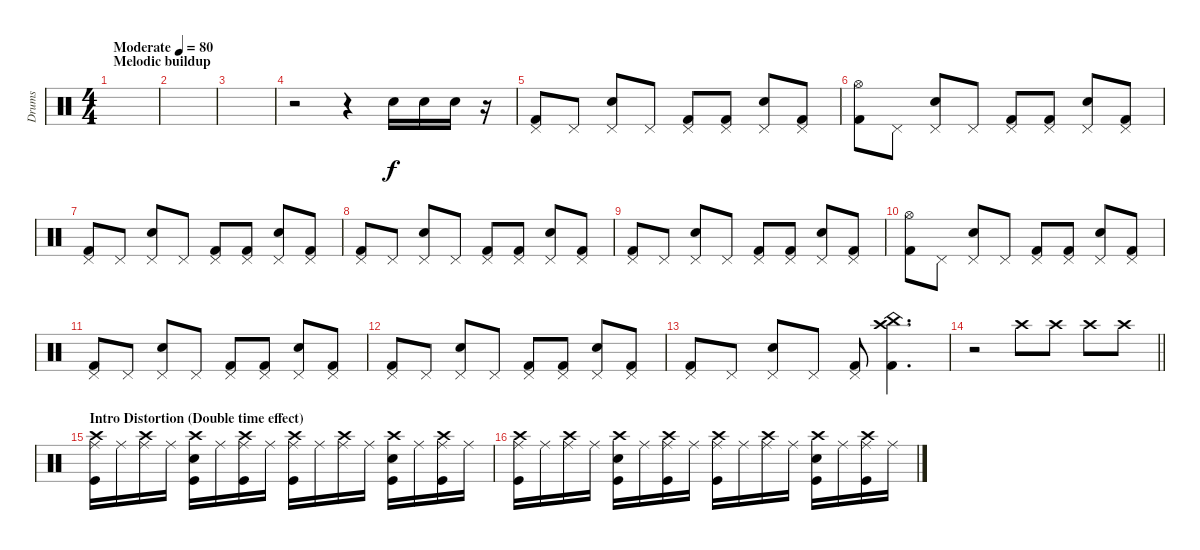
\track ("Drums" "Drums") {instrument percussion}
\staff {score}
\articulation defaults
\ts (4 4)
\section ("" "Melodic buildup")
\tempo (80 "Moderate")
\clef neutral
\ks c
|
|
|
r.2 r.4 "Snare (hit) 2".16 "Snare (hit) 2".16 "Snare (hit) 2".16 r.16 |
("Pedal Hi-Hat (hit)" "Kick (hit) 2").8 "Pedal Hi-Hat (hit)".8 ("Pedal Hi-Hat (hit)" "Electric Snare (hit)").8 "Pedal Hi-Hat (hit)".8 ("Pedal Hi-Hat (hit)" "Kick (hit) 2").8 ("Pedal Hi-Hat (hit)" "Kick (hit) 2").8 ("Pedal Hi-Hat (hit)" "Electric Snare (hit)").8 ("Pedal Hi-Hat (hit)" "Kick (hit) 2").8 |
("Hi-Hat (open)" "Kick (hit) 2").8 "Pedal Hi-Hat (hit)".8 ("Pedal Hi-Hat (hit)" "Electric Snare (hit)").8 "Pedal Hi-Hat (hit)".8 ("Pedal Hi-Hat (hit)" "Kick (hit) 2").8 ("Pedal Hi-Hat (hit)" "Kick (hit) 2").8 ("Pedal Hi-Hat (hit)" "Electric Snare (hit)").8 ("Pedal Hi-Hat (hit)" "Kick (hit) 2").8 |
("Pedal Hi-Hat (hit)" "Kick (hit) 2").8 "Pedal Hi-Hat (hit)".8 ("Pedal Hi-Hat (hit)" "Electric Snare (hit)").8 "Pedal Hi-Hat (hit)".8 ("Pedal Hi-Hat (hit)" "Kick (hit) 2").8 ("Pedal Hi-Hat (hit)" "Kick (hit) 2").8 ("Pedal Hi-Hat (hit)" "Electric Snare (hit)").8 ("Pedal Hi-Hat (hit)" "Kick (hit) 2").8 |
("Pedal Hi-Hat (hit)" "Kick (hit) 2").8 "Pedal Hi-Hat (hit)".8 ("Pedal Hi-Hat (hit)" "Electric Snare (hit)").8 "Pedal Hi-Hat (hit)".8 ("Pedal Hi-Hat (hit)" "Kick (hit) 2").8 ("Pedal Hi-Hat (hit)" "Kick (hit) 2").8 ("Pedal Hi-Hat (hit)" "Electric Snare (hit)").8 ("Pedal Hi-Hat (hit)" "Kick (hit) 2").8 |
("Pedal Hi-Hat (hit)" "Kick (hit) 2").8 "Pedal Hi-Hat (hit)".8 ("Pedal Hi-Hat (hit)" "Electric Snare (hit)").8 "Pedal Hi-Hat (hit)".8 ("Pedal Hi-Hat (hit)" "Kick (hit) 2").8 ("Pedal Hi-Hat (hit)" "Kick (hit) 2").8 ("Pedal Hi-Hat (hit)" "Electric Snare (hit)").8 ("Pedal Hi-Hat (hit)" "Kick (hit) 2").8 |
("Hi-Hat (open)" "Kick (hit) 2").8 "Pedal Hi-Hat (hit)".8 ("Pedal Hi-Hat (hit)" "Electric Snare (hit)").8 "Pedal Hi-Hat (hit)".8 ("Pedal Hi-Hat (hit)" "Kick (hit) 2").8 ("Pedal Hi-Hat (hit)" "Kick (hit) 2").8 ("Pedal Hi-Hat (hit)" "Electric Snare (hit)").8 ("Pedal Hi-Hat (hit)" "Kick (hit) 2").8 |
("Pedal Hi-Hat (hit)" "Kick (hit) 2").8 "Pedal Hi-Hat (hit)".8 ("Pedal Hi-Hat (hit)" "Electric Snare (hit)").8 "Pedal Hi-Hat (hit)".8 ("Pedal Hi-Hat (hit)" "Kick (hit) 2").8 ("Pedal Hi-Hat (hit)" "Kick (hit) 2").8 ("Pedal Hi-Hat (hit)" "Electric Snare (hit)").8 ("Pedal Hi-Hat (hit)" "Kick (hit) 2").8 |
("Pedal Hi-Hat (hit)" "Kick (hit) 2").8 "Pedal Hi-Hat (hit)".8 ("Pedal Hi-Hat (hit)" "Electric Snare (hit)").8 "Pedal Hi-Hat (hit)".8 ("Pedal Hi-Hat (hit)" "Kick (hit) 2").8 ("Pedal Hi-Hat (hit)" "Kick (hit) 2").8 ("Pedal Hi-Hat (hit)" "Electric Snare (hit)").8 ("Pedal Hi-Hat (hit)" "Kick (hit) 2").8 |
("Pedal Hi-Hat (hit)" "Kick (hit) 2").8 "Pedal Hi-Hat (hit)".8 ("Pedal Hi-Hat (hit)" "Electric Snare (hit)").8 "Pedal Hi-Hat (hit)".8 ("Pedal Hi-Hat (hit)" "Kick (hit) 2").8 ("Crash high (hit)" "China (hit)" "Kick (hit) 2").4{d} |
\barLineRight lightlight
r.2 "Crash high (hit)".8 "Crash high (hit)".8 "Crash high (hit)".8 "Crash high (hit)".8 |
\section ("" "Intro Distortion (Double time effect)")
("Kick (hit)" "Ride (middle)" "Crash high (hit)").16 "Ride (middle)".16 ("Ride (middle)" "Crash high (hit)").16 "Ride (middle)".16 ("Kick (hit)" "Crash high (hit)" "Snare (hit) 2").16 "Ride (middle)".16 ("Kick (hit)" "Ride (middle)" "Crash high (hit)").16 "Ride (middle)".16 ("Kick (hit)" "Ride (middle)" "Crash high (hit)").16 "Ride (middle)".16 ("Ride (middle)" "Crash high (hit)").16 "Ride (middle)".16 ("Kick (hit)" "Crash high (hit)" "Snare (hit) 2").16 "Ride (middle)".16 ("Kick (hit)" "Ride (middle)" "Crash high (hit)").16 "Ride (middle)".16 |
("Kick (hit)" "Ride (middle)" "Crash high (hit)").16 "Ride (middle)".16 ("Ride (middle)" "Crash high (hit)").16 "Ride (middle)".16 ("Kick (hit)" "Crash high (hit)" "Snare (hit) 2").16 "Ride (middle)".16 ("Kick (hit)" "Ride (middle)" "Crash high (hit)").16 "Ride (middle)".16 ("Kick (hit)" "Ride (middle)" "Crash high (hit)").16 "Ride (middle)".16 ("Ride (middle)" "Crash high (hit)").16 "Ride (middle)".16 ("Kick (hit)" "Crash high (hit)" "Snare (hit) 2").16 "Ride (middle)".16 ("Kick (hit)" "Ride (middle)" "Crash high (hit)").16 "Ride (middle)".16
